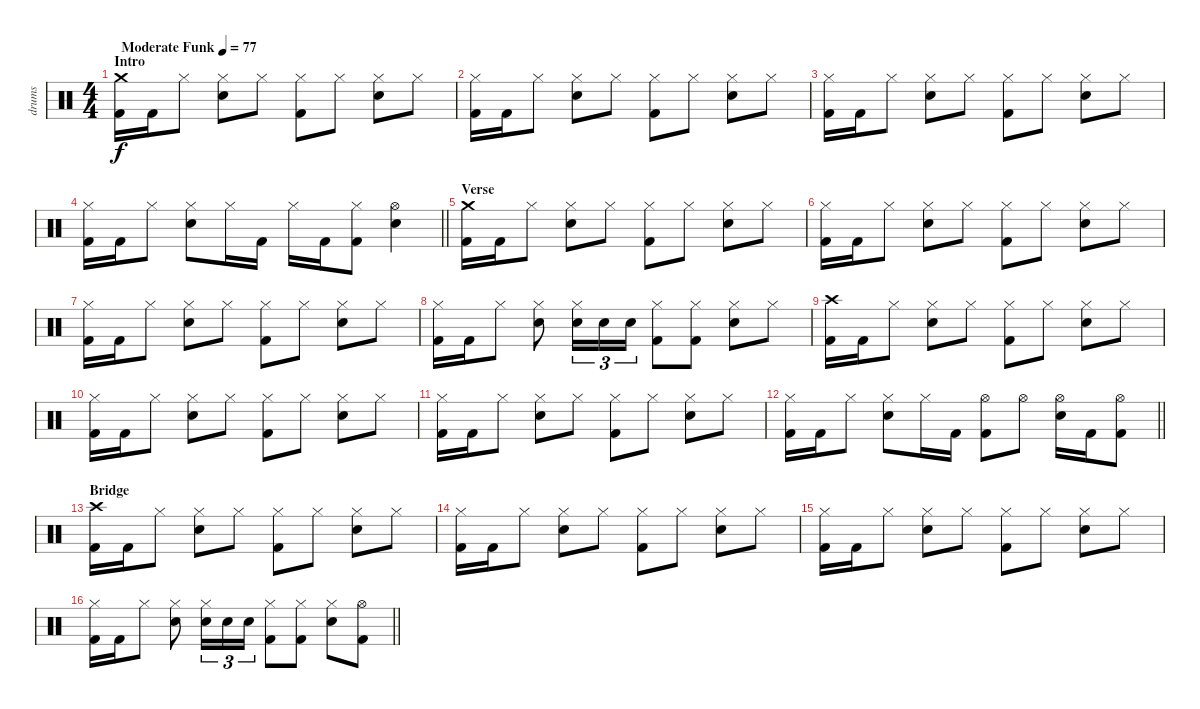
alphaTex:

\track ("drums" "drums") {instrument percussion}
\staff {score}
\articulation defaults
\ts (4 4)
\section ("" "Intro")
\tempo (77 "Moderate Funk")
\clef neutral
\ks c
("Crash medium (hit)" "Kick (hit) 2").16{dy f} "Kick (hit) 2".16 "Hi-Hat (closed)".8 ("Hi-Hat (closed)" "Electric Snare (hit)").8 "Hi-Hat (closed)".8 ("Hi-Hat (closed)" "Kick (hit) 2").8 "Hi-Hat (closed)".8 ("Hi-Hat (closed)" "Electric Snare (hit)").8 "Hi-Hat (closed)".8 |
("Hi-Hat (closed)" "Kick (hit) 2").16 "Kick (hit) 2".16 "Hi-Hat (closed)".8 ("Hi-Hat (closed)" "Electric Snare (hit)").8 "Hi-Hat (closed)".8 ("Hi-Hat (closed)" "Kick (hit) 2").8 "Hi-Hat (closed)".8 ("Hi-Hat (closed)" "Electric Snare (hit)").8 "Hi-Hat (closed)".8 |
("Hi-Hat (closed)" "Kick (hit) 2").16 "Kick (hit) 2".16 "Hi-Hat (closed)".8 ("Hi-Hat (closed)" "Electric Snare (hit)").8 "Hi-Hat (closed)".8 ("Hi-Hat (closed)" "Kick (hit) 2").8 "Hi-Hat (closed)".8 ("Hi-Hat (closed)" "Electric Snare (hit)").8 "Hi-Hat (closed)".8 |
\barLineRight lightlight
("Hi-Hat (closed)" "Kick (hit) 2").16 "Kick (hit) 2".16 "Hi-Hat (closed)".8 ("Hi-Hat (closed)" "Electric Snare (hit)").8 "Hi-Hat (closed)".16 "Kick (hit) 2".16 "Hi-Hat (closed)".16 "Kick (hit) 2".16 ("Hi-Hat (closed)" "Kick (hit) 2").8 ("Hi-Hat (open)" "Electric Snare (hit)").4 |
\section ("" "Verse")
("Crash medium (hit)" "Kick (hit) 2").16 "Kick (hit) 2".16 "Hi-Hat (closed)".8 ("Hi-Hat (closed)" "Electric Snare (hit)").8 "Hi-Hat (closed)".8 ("Hi-Hat (closed)" "Kick (hit) 2").8 "Hi-Hat (closed)".8 ("Hi-Hat (closed)" "Electric Snare (hit)").8 "Hi-Hat (closed)".8 |
("Hi-Hat (closed)" "Kick (hit) 2").16 "Kick (hit) 2".16 "Hi-Hat (closed)".8 ("Hi-Hat (closed)" "Electric Snare (hit)").8 "Hi-Hat (closed)".8 ("Hi-Hat (closed)" "Kick (hit) 2").8 "Hi-Hat (closed)".8 ("Hi-Hat (closed)" "Electric Snare (hit)").8 "Hi-Hat (closed)".8 |
("Hi-Hat (closed)" "Kick (hit) 2").16 "Kick (hit) 2".16 "Hi-Hat (closed)".8 ("Hi-Hat (closed)" "Electric Snare (hit)").8 "Hi-Hat (closed)".8 ("Hi-Hat (closed)" "Kick (hit) 2").8 "Hi-Hat (closed)".8 ("Hi-Hat (closed)" "Electric Snare (hit)").8 "Hi-Hat (closed)".8 |
("Hi-Hat (closed)" "Kick (hit) 2").16 "Kick (hit) 2".16 "Hi-Hat (closed)".8 ("Hi-Hat (closed)" "Electric Snare (hit)").8 ("Hi-Hat (closed)" "Electric Snare (hit)").16{tu (3 2)} "Electric Snare (hit)".16{tu (3 2)} "Electric Snare (hit)".16{tu (3 2)} ("Hi-Hat (closed)" "Kick (hit) 2").8 ("Hi-Hat (closed)" "Kick (hit) 2").8 ("Hi-Hat (closed)" "Electric Snare (hit)").8 "Hi-Hat (closed)".8 |
("Crash high (hit)" "Kick (hit) 2").16 "Kick (hit) 2".16 "Hi-Hat (closed)".8 ("Hi-Hat (closed)" "Electric Snare (hit)").8 "Hi-Hat (closed)".8 ("Hi-Hat (closed)" "Kick (hit) 2").8 "Hi-Hat (closed)".8 ("Hi-Hat (closed)" "Electric Snare (hit)").8 "Hi-Hat (closed)".8 |
("Hi-Hat (closed)" "Kick (hit) 2").16 "Kick (hit) 2".16 "Hi-Hat (closed)".8 ("Hi-Hat (closed)" "Electric Snare (hit)").8 "Hi-Hat (closed)".8 ("Hi-Hat (closed)" "Kick (hit) 2").8 "Hi-Hat (closed)".8 ("Hi-Hat (closed)" "Electric Snare (hit)").8 "Hi-Hat (closed)".8 |
("Hi-Hat (closed)" "Kick (hit) 2").16 "Kick (hit) 2".16 "Hi-Hat (closed)".8 ("Hi-Hat (closed)" "Electric Snare (hit)").8 "Hi-Hat (closed)".8 ("Hi-Hat (closed)" "Kick (hit) 2").8 "Hi-Hat (closed)".8 ("Hi-Hat (closed)" "Electric Snare (hit)").8 "Hi-Hat (closed)".8 |
\barLineRight lightlight
("Hi-Hat (closed)" "Kick (hit) 2").16 "Kick (hit) 2".16 "Hi-Hat (closed)".8 ("Hi-Hat (closed)" "Electric Snare (hit)").8 "Hi-Hat (closed)".16 "Kick (hit) 2".16 ("Hi-Hat (open)" "Kick (hit) 2").8 "Hi-Hat (open)".8 ("Hi-Hat (open)" "Electric Snare (hit)").16 "Kick (hit) 2".16 ("Hi-Hat (open)" "Kick (hit) 2").8 |
\section ("" "Bridge")
("Crash high (hit)" "Kick (hit) 2").16 "Kick (hit) 2".16 "Hi-Hat (closed)".8 ("Hi-Hat (closed)" "Electric Snare (hit)").8 "Hi-Hat (closed)".8 ("Hi-Hat (closed)" "Kick (hit) 2").8 "Hi-Hat (closed)".8 ("Hi-Hat (closed)" "Electric Snare (hit)").8 "Hi-Hat (closed)".8 |
("Hi-Hat (closed)" "Kick (hit) 2").16 "Kick (hit) 2".16 "Hi-Hat (closed)".8 ("Hi-Hat (closed)" "Electric Snare (hit)").8 "Hi-Hat (closed)".8 ("Hi-Hat (closed)" "Kick (hit) 2").8 "Hi-Hat (closed)".8 ("Hi-Hat (closed)" "Electric Snare (hit)").8 "Hi-Hat (closed)".8 |
("Hi-Hat (closed)" "Kick (hit) 2").16 "Kick (hit) 2".16 "Hi-Hat (closed)".8 ("Hi-Hat (closed)" "Electric Snare (hit)").8 "Hi-Hat (closed)".8 ("Hi-Hat (closed)" "Kick (hit) 2").8 "Hi-Hat (closed)".8 ("Hi-Hat (closed)" "Electric Snare (hit)").8 "Hi-Hat (closed)".8 |
\barLineRight lightlight
("Hi-Hat (closed)" "Kick (hit) 2").16 "Kick (hit) 2".16 "Hi-Hat (closed)".8 ("Hi-Hat (closed)" "Electric Snare (hit)").8 ("Hi-Hat (closed)" "Electric Snare (hit)").16{tu (3 2)} "Electric Snare (hit)".16{tu (3 2)} "Electric Snare (hit)".16{tu (3 2)} ("Hi-Hat (closed)" "Kick (hit) 2").8 ("Hi-Hat (closed)" "Kick (hit) 2").8 ("Hi-Hat (closed)" "Electric Snare (hit)").8 ("Hi-Hat (open)" "Kick (hit) 2").8
